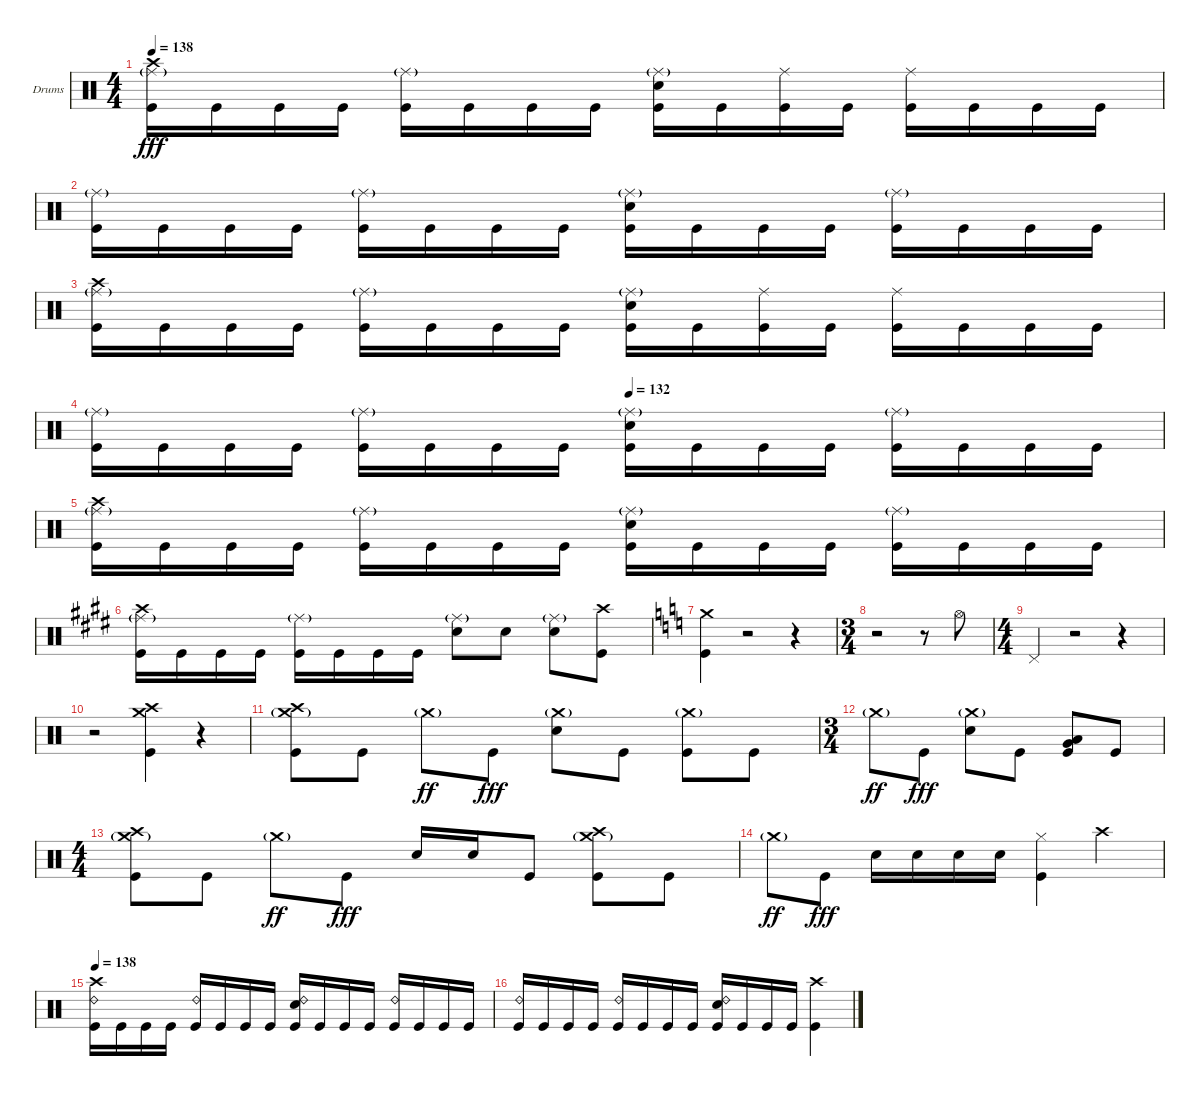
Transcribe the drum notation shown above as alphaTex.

\bracketExtendMode groupsimilarinstruments
\firstSystemTrackNameOrientation horizontal
\otherSystemsTrackNameOrientation horizontal
\track ("Drumkit" "Drums") {instrument percussion}
\staff {score}
\articulation defaults
\ts (4 4)
\tempo 138
\clef neutral
\ks c
("Crash high (hit)" "Ride (middle)"{g} "Kick (hit)").16{dy fff} "Kick (hit)".16 "Kick (hit)".16 "Kick (hit)".16 ("Ride (middle)"{g} "Kick (hit)").16 "Kick (hit)".16 "Kick (hit)".16 "Kick (hit)".16 ("Ride (middle)"{g} "Snare (hit) 2" "Kick (hit)").16 "Kick (hit)".16 ("Ride (middle)" "Kick (hit)").16 "Kick (hit)".16 ("Ride (middle)" "Kick (hit)").16 "Kick (hit)".16 "Kick (hit)".16 "Kick (hit)".16 |
("Ride (middle)"{g} "Kick (hit)").16 "Kick (hit)".16 "Kick (hit)".16 "Kick (hit)".16 ("Ride (middle)"{g} "Kick (hit)").16 "Kick (hit)".16 "Kick (hit)".16 "Kick (hit)".16 ("Ride (middle)"{g} "Snare (hit) 2" "Kick (hit)").16 "Kick (hit)".16 "Kick (hit)".16 "Kick (hit)".16 ("Ride (middle)"{g} "Kick (hit)").16 "Kick (hit)".16 "Kick (hit)".16 "Kick (hit)".16 |
("Crash high (hit)" "Ride (middle)"{g} "Kick (hit)").16 "Kick (hit)".16 "Kick (hit)".16 "Kick (hit)".16 ("Ride (middle)"{g} "Kick (hit)").16 "Kick (hit)".16 "Kick (hit)".16 "Kick (hit)".16 ("Ride (middle)"{g} "Snare (hit) 2" "Kick (hit)").16 "Kick (hit)".16 ("Ride (middle)" "Kick (hit)").16 "Kick (hit)".16 ("Ride (middle)" "Kick (hit)").16 "Kick (hit)".16 "Kick (hit)".16 "Kick (hit)".16 |
\tempo (132 0.5)
("Ride (middle)"{g} "Kick (hit)").16 "Kick (hit)".16 "Kick (hit)".16 "Kick (hit)".16 ("Ride (middle)"{g} "Kick (hit)").16 "Kick (hit)".16 "Kick (hit)".16 "Kick (hit)".16 ("Ride (middle)"{g} "Snare (hit) 2" "Kick (hit)").16 "Kick (hit)".16 "Kick (hit)".16 "Kick (hit)".16 ("Ride (middle)"{g} "Kick (hit)").16 "Kick (hit)".16 "Kick (hit)".16 "Kick (hit)".16 |
("Crash high (hit)" "Ride (middle)"{g} "Kick (hit)").16 "Kick (hit)".16 "Kick (hit)".16 "Kick (hit)".16 ("Ride (middle)"{g} "Kick (hit)").16 "Kick (hit)".16 "Kick (hit)".16 "Kick (hit)".16 ("Ride (middle)"{g} "Snare (hit) 2" "Kick (hit)").16 "Kick (hit)".16 "Kick (hit)".16 "Kick (hit)".16 ("Ride (middle)"{g} "Kick (hit)").16 "Kick (hit)".16 "Kick (hit)".16 "Kick (hit)".16 |
\ks e
("Crash high (hit)" "Ride (middle)"{g} "Kick (hit)").16 "Kick (hit)".16 "Kick (hit)".16 "Kick (hit)".16 ("Ride (middle)"{g} "Kick (hit)").16 "Kick (hit)".16 "Kick (hit)".16 "Kick (hit)".16 ("Ride (middle)"{g} "Snare (hit) 2").8 "Snare (hit) 2".8 ("Ride (middle)"{g} "Snare (hit) 2").8 ("Crash high (hit)" "Kick (hit)").8 |
\ks c
("Crash medium (hit)" "Kick (hit)").4 r.2 r.4 |
\ts (3 4)
\beaming (8 2 2 2)
r.2 r.8 "Hi-Hat (open)".8 |
\ts (4 4)
\beaming (8 2 2 2 2)
"Pedal Hi-Hat (hit)".4 r.2 r.4 |
r.2 ("Crash medium (hit)" "Crash high (hit)" "Kick (hit)").4 r.4 |
("Crash medium (hit)"{g} "Crash high (hit)" "Kick (hit)").8 "Kick (hit)".8 "Crash medium (hit)"{g}.8{dy ff} "Kick (hit)".8{dy fff} ("Crash medium (hit)"{g} "Snare (hit) 2").8 "Kick (hit)".8 ("Crash medium (hit)"{g} "Kick (hit)").8 "Kick (hit)".8 |
\ts (3 4)
\beaming (8 2 2 2 2)
"Crash medium (hit)"{g}.8{dy ff} "Kick (hit)".8{dy fff} ("Crash medium (hit)"{g} "Snare (hit) 2").8 "Kick (hit)".8 ("Low Tom (hit)" "Very Low Tom (hit)" "Kick (hit)").8 "Kick (hit)".8 |
\ts (4 4)
\beaming (8 2 2 2 2)
("Crash medium (hit)"{g} "Crash high (hit)" "Kick (hit)").8 "Kick (hit)".8 "Crash medium (hit)"{g}.8{dy ff} "Kick (hit)".8{dy fff} "Snare (hit) 2".16 "Snare (hit) 2".16 "Kick (hit)".8 ("Crash medium (hit)"{g} "Crash high (hit)" "Kick (hit)").8 "Kick (hit)".8 |
"Crash medium (hit)"{g}.8{dy ff} "Kick (hit)".8{dy fff} "Snare (hit) 2".16 "Snare (hit) 2".16 "Snare (hit) 2".16 "Snare (hit) 2".16 ("Hi-Hat (closed)" "Kick (hit)").4 "Crash high (hit)".4 |
\tempo 138
("Crash high (hit)" "Ride (bell) 2" "Kick (hit)").16 "Kick (hit)".16 "Kick (hit)".16 "Kick (hit)".16 ("Ride (bell) 2" "Kick (hit)").16 "Kick (hit)".16 "Kick (hit)".16 "Kick (hit)".16 ("Ride (bell) 2" "Snare (hit) 2" "Kick (hit)").16 "Kick (hit)".16 "Kick (hit)".16 "Kick (hit)".16 ("Ride (bell) 2" "Kick (hit)").16 "Kick (hit)".16 "Kick (hit)".16 "Kick (hit)".16 |
("Ride (bell) 2" "Kick (hit)").16 "Kick (hit)".16 "Kick (hit)".16 "Kick (hit)".16 ("Ride (bell) 2" "Kick (hit)").16 "Kick (hit)".16 "Kick (hit)".16 "Kick (hit)".16 ("Ride (bell) 2" "Snare (hit) 2" "Kick (hit)").16 "Kick (hit)".16 "Kick (hit)".16 "Kick (hit)".16 ("Crash high (hit)" "Kick (hit)").4
